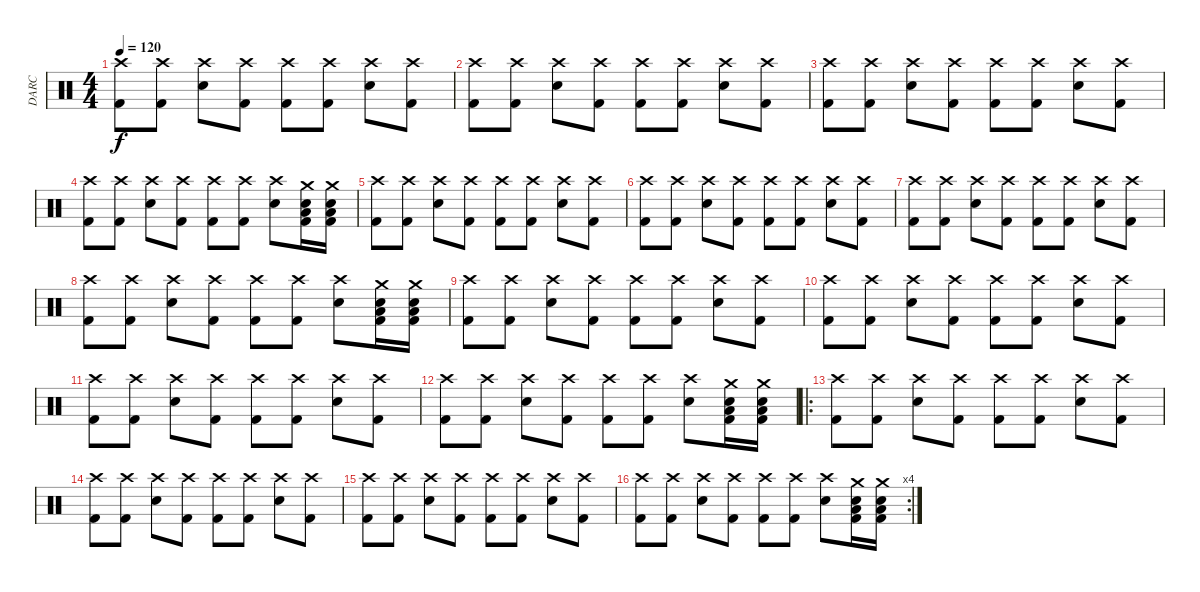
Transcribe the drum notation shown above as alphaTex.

\track ("DARC" "DARC") {instrument percussion}
\staff {score}
\articulation defaults
\ts (4 4)
\tempo 120
\clef neutral
\ks c
("Crash high (hit)" "Kick (hit) 2").8{dy f} ("Crash high (hit)" "Kick (hit) 2").8 ("Crash high (hit)" "Snare (hit) 2").8 ("Crash high (hit)" "Kick (hit) 2").8 ("Crash high (hit)" "Kick (hit) 2").8 ("Crash high (hit)" "Kick (hit) 2").8 ("Crash high (hit)" "Snare (hit) 2").8 ("Crash high (hit)" "Kick (hit) 2").8 |
("Crash high (hit)" "Kick (hit) 2").8 ("Crash high (hit)" "Kick (hit) 2").8 ("Crash high (hit)" "Snare (hit) 2").8 ("Crash high (hit)" "Kick (hit) 2").8 ("Crash high (hit)" "Kick (hit) 2").8 ("Crash high (hit)" "Kick (hit) 2").8 ("Crash high (hit)" "Snare (hit) 2").8 ("Crash high (hit)" "Kick (hit) 2").8 |
("Crash high (hit)" "Kick (hit) 2").8 ("Crash high (hit)" "Kick (hit) 2").8 ("Crash high (hit)" "Snare (hit) 2").8 ("Crash high (hit)" "Kick (hit) 2").8 ("Crash high (hit)" "Kick (hit) 2").8 ("Crash high (hit)" "Kick (hit) 2").8 ("Crash high (hit)" "Snare (hit) 2").8 ("Crash high (hit)" "Kick (hit) 2").8 |
("Crash high (hit)" "Kick (hit) 2").8 ("Crash high (hit)" "Kick (hit) 2").8 ("Crash high (hit)" "Snare (hit) 2").8 ("Crash high (hit)" "Kick (hit) 2").8 ("Crash high (hit)" "Kick (hit) 2").8 ("Crash high (hit)" "Kick (hit) 2").8 ("Crash high (hit)" "Snare (hit) 2").8 ("Crash medium (hit)" "Kick (hit) 2" "Low Floor Tom (hit)" "Electric Snare (hit)").16 ("Crash medium (hit)" "Kick (hit) 2" "Low Floor Tom (hit)" "Electric Snare (hit)").16 |
("Crash high (hit)" "Kick (hit) 2").8 ("Crash high (hit)" "Kick (hit) 2").8 ("Crash high (hit)" "Snare (hit) 2").8 ("Crash high (hit)" "Kick (hit) 2").8 ("Crash high (hit)" "Kick (hit) 2").8 ("Crash high (hit)" "Kick (hit) 2").8 ("Crash high (hit)" "Snare (hit) 2").8 ("Crash high (hit)" "Kick (hit) 2").8 |
("Crash high (hit)" "Kick (hit) 2").8 ("Crash high (hit)" "Kick (hit) 2").8 ("Crash high (hit)" "Snare (hit) 2").8 ("Crash high (hit)" "Kick (hit) 2").8 ("Crash high (hit)" "Kick (hit) 2").8 ("Crash high (hit)" "Kick (hit) 2").8 ("Crash high (hit)" "Snare (hit) 2").8 ("Crash high (hit)" "Kick (hit) 2").8 |
("Crash high (hit)" "Kick (hit) 2").8 ("Crash high (hit)" "Kick (hit) 2").8 ("Crash high (hit)" "Snare (hit) 2").8 ("Crash high (hit)" "Kick (hit) 2").8 ("Crash high (hit)" "Kick (hit) 2").8 ("Crash high (hit)" "Kick (hit) 2").8 ("Crash high (hit)" "Snare (hit) 2").8 ("Crash high (hit)" "Kick (hit) 2").8 |
("Crash high (hit)" "Kick (hit) 2").8 ("Crash high (hit)" "Kick (hit) 2").8 ("Crash high (hit)" "Snare (hit) 2").8 ("Crash high (hit)" "Kick (hit) 2").8 ("Crash high (hit)" "Kick (hit) 2").8 ("Crash high (hit)" "Kick (hit) 2").8 ("Crash high (hit)" "Snare (hit) 2").8 ("Crash medium (hit)" "Kick (hit) 2" "Low Floor Tom (hit)" "Electric Snare (hit)").16 ("Crash medium (hit)" "Kick (hit) 2" "Low Floor Tom (hit)" "Electric Snare (hit)").16 |
("Crash high (hit)" "Kick (hit) 2").8 ("Crash high (hit)" "Kick (hit) 2").8 ("Crash high (hit)" "Snare (hit) 2").8 ("Crash high (hit)" "Kick (hit) 2").8 ("Crash high (hit)" "Kick (hit) 2").8 ("Crash high (hit)" "Kick (hit) 2").8 ("Crash high (hit)" "Snare (hit) 2").8 ("Crash high (hit)" "Kick (hit) 2").8 |
("Crash high (hit)" "Kick (hit) 2").8 ("Crash high (hit)" "Kick (hit) 2").8 ("Crash high (hit)" "Snare (hit) 2").8 ("Crash high (hit)" "Kick (hit) 2").8 ("Crash high (hit)" "Kick (hit) 2").8 ("Crash high (hit)" "Kick (hit) 2").8 ("Crash high (hit)" "Snare (hit) 2").8 ("Crash high (hit)" "Kick (hit) 2").8 |
("Crash high (hit)" "Kick (hit) 2").8 ("Crash high (hit)" "Kick (hit) 2").8 ("Crash high (hit)" "Snare (hit) 2").8 ("Crash high (hit)" "Kick (hit) 2").8 ("Crash high (hit)" "Kick (hit) 2").8 ("Crash high (hit)" "Kick (hit) 2").8 ("Crash high (hit)" "Snare (hit) 2").8 ("Crash high (hit)" "Kick (hit) 2").8 |
("Crash high (hit)" "Kick (hit) 2").8 ("Crash high (hit)" "Kick (hit) 2").8 ("Crash high (hit)" "Snare (hit) 2").8 ("Crash high (hit)" "Kick (hit) 2").8 ("Crash high (hit)" "Kick (hit) 2").8 ("Crash high (hit)" "Kick (hit) 2").8 ("Crash high (hit)" "Snare (hit) 2").8 ("Crash medium (hit)" "Kick (hit) 2" "Low Floor Tom (hit)" "Electric Snare (hit)").16 ("Crash medium (hit)" "Kick (hit) 2" "Low Floor Tom (hit)" "Electric Snare (hit)").16 |
\ro
("Crash high (hit)" "Kick (hit) 2").8 ("Crash high (hit)" "Kick (hit) 2").8 ("Crash high (hit)" "Snare (hit) 2").8 ("Crash high (hit)" "Kick (hit) 2").8 ("Crash high (hit)" "Kick (hit) 2").8 ("Crash high (hit)" "Kick (hit) 2").8 ("Crash high (hit)" "Snare (hit) 2").8 ("Crash high (hit)" "Kick (hit) 2").8 |
("Crash high (hit)" "Kick (hit) 2").8 ("Crash high (hit)" "Kick (hit) 2").8 ("Crash high (hit)" "Snare (hit) 2").8 ("Crash high (hit)" "Kick (hit) 2").8 ("Crash high (hit)" "Kick (hit) 2").8 ("Crash high (hit)" "Kick (hit) 2").8 ("Crash high (hit)" "Snare (hit) 2").8 ("Crash high (hit)" "Kick (hit) 2").8 |
("Crash high (hit)" "Kick (hit) 2").8 ("Crash high (hit)" "Kick (hit) 2").8 ("Crash high (hit)" "Snare (hit) 2").8 ("Crash high (hit)" "Kick (hit) 2").8 ("Crash high (hit)" "Kick (hit) 2").8 ("Crash high (hit)" "Kick (hit) 2").8 ("Crash high (hit)" "Snare (hit) 2").8 ("Crash high (hit)" "Kick (hit) 2").8 |
\rc 4
("Crash high (hit)" "Kick (hit) 2").8 ("Crash high (hit)" "Kick (hit) 2").8 ("Crash high (hit)" "Snare (hit) 2").8 ("Crash high (hit)" "Kick (hit) 2").8 ("Crash high (hit)" "Kick (hit) 2").8 ("Crash high (hit)" "Kick (hit) 2").8 ("Crash high (hit)" "Snare (hit) 2").8 ("Crash medium (hit)" "Kick (hit) 2" "Low Floor Tom (hit)" "Electric Snare (hit)").16 ("Crash medium (hit)" "Kick (hit) 2" "Low Floor Tom (hit)" "Electric Snare (hit)").16
